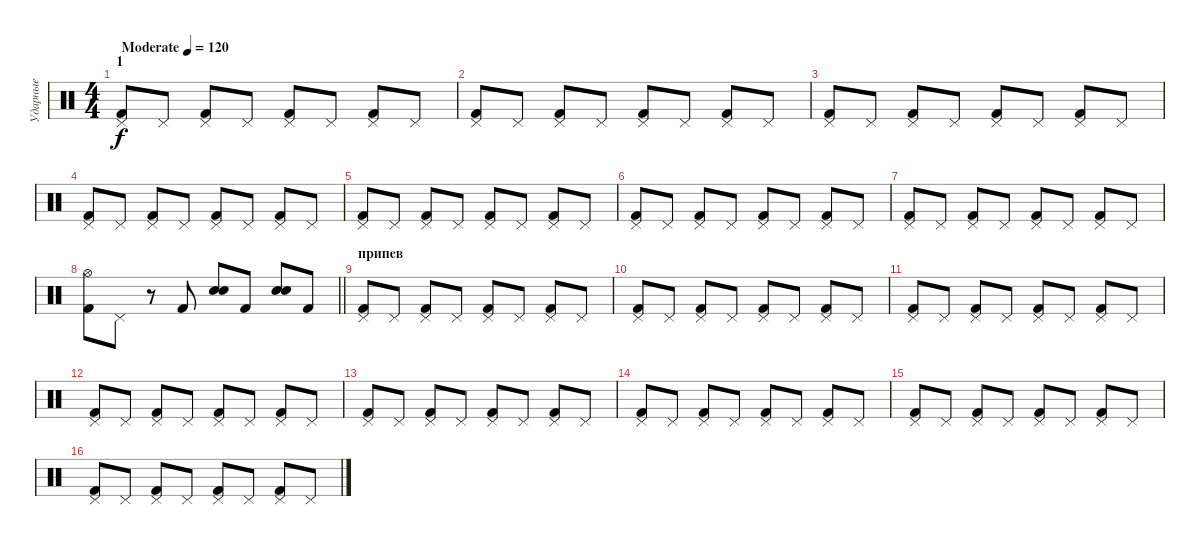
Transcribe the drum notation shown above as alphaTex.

\track ("Ударные" "Ударные") {instrument percussion}
\staff {score}
\articulation defaults
\ts (4 4)
\section ("" "1")
\tempo (120 "Moderate")
\tempo 115
\tempo (120 "Moderate")
\clef neutral
\ks c
("Pedal Hi-Hat (hit)" "Kick (hit) 2").8{dy f} "Pedal Hi-Hat (hit)".8 ("Pedal Hi-Hat (hit)" "Kick (hit) 2").8 "Pedal Hi-Hat (hit)".8 ("Pedal Hi-Hat (hit)" "Kick (hit) 2").8 "Pedal Hi-Hat (hit)".8 ("Pedal Hi-Hat (hit)" "Kick (hit) 2").8 "Pedal Hi-Hat (hit)".8 |
("Pedal Hi-Hat (hit)" "Kick (hit) 2").8 "Pedal Hi-Hat (hit)".8 ("Pedal Hi-Hat (hit)" "Kick (hit) 2").8 "Pedal Hi-Hat (hit)".8 ("Pedal Hi-Hat (hit)" "Kick (hit) 2").8 "Pedal Hi-Hat (hit)".8 ("Pedal Hi-Hat (hit)" "Kick (hit) 2").8 "Pedal Hi-Hat (hit)".8 |
("Pedal Hi-Hat (hit)" "Kick (hit) 2").8 "Pedal Hi-Hat (hit)".8 ("Pedal Hi-Hat (hit)" "Kick (hit) 2").8 "Pedal Hi-Hat (hit)".8 ("Pedal Hi-Hat (hit)" "Kick (hit) 2").8 "Pedal Hi-Hat (hit)".8 ("Pedal Hi-Hat (hit)" "Kick (hit) 2").8 "Pedal Hi-Hat (hit)".8 |
("Pedal Hi-Hat (hit)" "Kick (hit) 2").8 "Pedal Hi-Hat (hit)".8 ("Pedal Hi-Hat (hit)" "Kick (hit) 2").8 "Pedal Hi-Hat (hit)".8 ("Pedal Hi-Hat (hit)" "Kick (hit) 2").8 "Pedal Hi-Hat (hit)".8 ("Pedal Hi-Hat (hit)" "Kick (hit) 2").8 "Pedal Hi-Hat (hit)".8 |
("Pedal Hi-Hat (hit)" "Kick (hit) 2").8 "Pedal Hi-Hat (hit)".8 ("Pedal Hi-Hat (hit)" "Kick (hit) 2").8 "Pedal Hi-Hat (hit)".8 ("Pedal Hi-Hat (hit)" "Kick (hit) 2").8 "Pedal Hi-Hat (hit)".8 ("Pedal Hi-Hat (hit)" "Kick (hit) 2").8 "Pedal Hi-Hat (hit)".8 |
("Pedal Hi-Hat (hit)" "Kick (hit) 2").8 "Pedal Hi-Hat (hit)".8 ("Pedal Hi-Hat (hit)" "Kick (hit) 2").8 "Pedal Hi-Hat (hit)".8 ("Pedal Hi-Hat (hit)" "Kick (hit) 2").8 "Pedal Hi-Hat (hit)".8 ("Pedal Hi-Hat (hit)" "Kick (hit) 2").8 "Pedal Hi-Hat (hit)".8 |
("Pedal Hi-Hat (hit)" "Kick (hit) 2").8 "Pedal Hi-Hat (hit)".8 ("Pedal Hi-Hat (hit)" "Kick (hit) 2").8 "Pedal Hi-Hat (hit)".8 ("Pedal Hi-Hat (hit)" "Kick (hit) 2").8 "Pedal Hi-Hat (hit)".8 ("Pedal Hi-Hat (hit)" "Kick (hit) 2").8 "Pedal Hi-Hat (hit)".8 |
\barLineRight lightlight
("Hi-Hat (open)" "Kick (hit) 2").8 "Pedal Hi-Hat (hit)".8 r.8 "Kick (hit) 2".8 ("Snare (hit) 2" "Electric Snare (hit)").8 "Kick (hit) 2".8 ("Snare (hit) 2" "Electric Snare (hit)").8 "Kick (hit) 2".8 |
\section ("" "припев")
("Pedal Hi-Hat (hit)" "Kick (hit) 2").8 "Pedal Hi-Hat (hit)".8 ("Pedal Hi-Hat (hit)" "Kick (hit) 2").8 "Pedal Hi-Hat (hit)".8 ("Pedal Hi-Hat (hit)" "Kick (hit) 2").8 "Pedal Hi-Hat (hit)".8 ("Pedal Hi-Hat (hit)" "Kick (hit) 2").8 "Pedal Hi-Hat (hit)".8 |
("Pedal Hi-Hat (hit)" "Kick (hit) 2").8 "Pedal Hi-Hat (hit)".8 ("Pedal Hi-Hat (hit)" "Kick (hit) 2").8 "Pedal Hi-Hat (hit)".8 ("Pedal Hi-Hat (hit)" "Kick (hit) 2").8 "Pedal Hi-Hat (hit)".8 ("Pedal Hi-Hat (hit)" "Kick (hit) 2").8 "Pedal Hi-Hat (hit)".8 |
("Pedal Hi-Hat (hit)" "Kick (hit) 2").8 "Pedal Hi-Hat (hit)".8 ("Pedal Hi-Hat (hit)" "Kick (hit) 2").8 "Pedal Hi-Hat (hit)".8 ("Pedal Hi-Hat (hit)" "Kick (hit) 2").8 "Pedal Hi-Hat (hit)".8 ("Pedal Hi-Hat (hit)" "Kick (hit) 2").8 "Pedal Hi-Hat (hit)".8 |
("Pedal Hi-Hat (hit)" "Kick (hit) 2").8 "Pedal Hi-Hat (hit)".8 ("Pedal Hi-Hat (hit)" "Kick (hit) 2").8 "Pedal Hi-Hat (hit)".8 ("Pedal Hi-Hat (hit)" "Kick (hit) 2").8 "Pedal Hi-Hat (hit)".8 ("Pedal Hi-Hat (hit)" "Kick (hit) 2").8 "Pedal Hi-Hat (hit)".8 |
("Pedal Hi-Hat (hit)" "Kick (hit) 2").8 "Pedal Hi-Hat (hit)".8 ("Pedal Hi-Hat (hit)" "Kick (hit) 2").8 "Pedal Hi-Hat (hit)".8 ("Pedal Hi-Hat (hit)" "Kick (hit) 2").8 "Pedal Hi-Hat (hit)".8 ("Pedal Hi-Hat (hit)" "Kick (hit) 2").8 "Pedal Hi-Hat (hit)".8 |
("Pedal Hi-Hat (hit)" "Kick (hit) 2").8 "Pedal Hi-Hat (hit)".8 ("Pedal Hi-Hat (hit)" "Kick (hit) 2").8 "Pedal Hi-Hat (hit)".8 ("Pedal Hi-Hat (hit)" "Kick (hit) 2").8 "Pedal Hi-Hat (hit)".8 ("Pedal Hi-Hat (hit)" "Kick (hit) 2").8 "Pedal Hi-Hat (hit)".8 |
("Pedal Hi-Hat (hit)" "Kick (hit) 2").8 "Pedal Hi-Hat (hit)".8 ("Pedal Hi-Hat (hit)" "Kick (hit) 2").8 "Pedal Hi-Hat (hit)".8 ("Pedal Hi-Hat (hit)" "Kick (hit) 2").8 "Pedal Hi-Hat (hit)".8 ("Pedal Hi-Hat (hit)" "Kick (hit) 2").8 "Pedal Hi-Hat (hit)".8 |
("Pedal Hi-Hat (hit)" "Kick (hit) 2").8 "Pedal Hi-Hat (hit)".8 ("Pedal Hi-Hat (hit)" "Kick (hit) 2").8 "Pedal Hi-Hat (hit)".8 ("Pedal Hi-Hat (hit)" "Kick (hit) 2").8 "Pedal Hi-Hat (hit)".8 ("Pedal Hi-Hat (hit)" "Kick (hit) 2").8 "Pedal Hi-Hat (hit)".8
